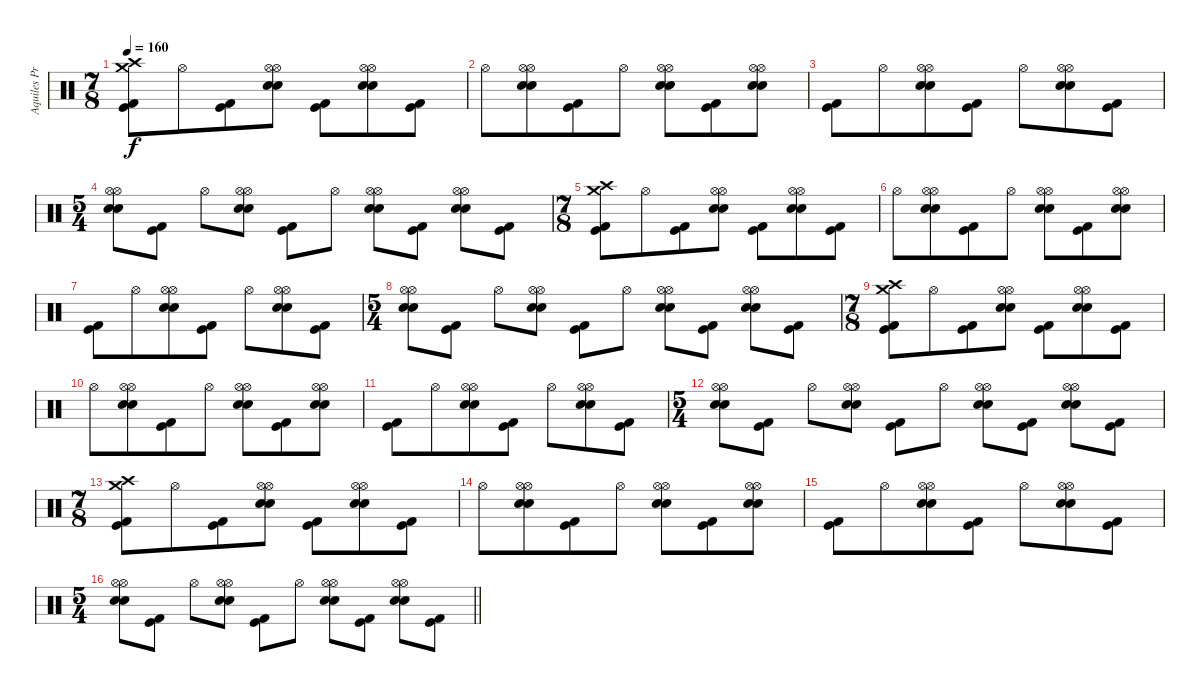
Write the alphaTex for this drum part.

\track ("Aquiles Priester" "Aquiles Pr") {instrument percussion}
\staff {score}
\articulation defaults
\ts (7 8)
\tempo 160
\clef neutral
\ks c
("Crash medium (hit)" "Crash high (hit)" "Kick (hit) 2" "Kick (hit)").8{dy f} "Hi-Hat (open)".8 ("Kick (hit) 2" "Kick (hit)").8 ("Hi-Hat (open)" "Hi-Hat (open)" "Electric Snare (hit)" "Electric Snare (hit)").8 ("Kick (hit)" "Kick (hit) 2").8 ("Hi-Hat (open)" "Hi-Hat (open)" "Electric Snare (hit)" "Electric Snare (hit)").8 ("Kick (hit) 2" "Kick (hit)").8 |
"Hi-Hat (open)".8 ("Hi-Hat (open)" "Hi-Hat (open)" "Electric Snare (hit)" "Electric Snare (hit)").8 ("Kick (hit)" "Kick (hit) 2").8 "Hi-Hat (open)".8 ("Hi-Hat (open)" "Hi-Hat (open)" "Electric Snare (hit)" "Electric Snare (hit)").8 ("Kick (hit) 2" "Kick (hit)").8 ("Hi-Hat (open)" "Hi-Hat (open)" "Electric Snare (hit)" "Electric Snare (hit)").8 |
("Kick (hit)" "Kick (hit) 2").8 "Hi-Hat (open)".8 ("Hi-Hat (open)" "Hi-Hat (open)" "Electric Snare (hit)" "Electric Snare (hit)").8 ("Kick (hit)" "Kick (hit) 2").8 "Hi-Hat (open)".8 ("Hi-Hat (open)" "Hi-Hat (open)" "Electric Snare (hit)" "Electric Snare (hit)").8 ("Kick (hit)" "Kick (hit) 2").8 |
\ts (5 4)
("Hi-Hat (open)" "Hi-Hat (open)" "Electric Snare (hit)" "Electric Snare (hit)").8 ("Kick (hit)" "Kick (hit) 2").8 "Hi-Hat (open)".8 ("Hi-Hat (open)" "Hi-Hat (open)" "Electric Snare (hit)" "Electric Snare (hit)").8 ("Kick (hit)" "Kick (hit) 2").8 "Hi-Hat (open)".8 ("Hi-Hat (open)" "Hi-Hat (open)" "Electric Snare (hit)" "Electric Snare (hit)").8 ("Kick (hit)" "Kick (hit) 2").8 ("Hi-Hat (open)" "Hi-Hat (open)" "Electric Snare (hit)" "Electric Snare (hit)").8 ("Kick (hit)" "Kick (hit) 2").8 |
\ts (7 8)
("Crash medium (hit)" "Crash high (hit)" "Kick (hit) 2" "Kick (hit)").8 "Hi-Hat (open)".8 ("Kick (hit) 2" "Kick (hit)").8 ("Hi-Hat (open)" "Hi-Hat (open)" "Electric Snare (hit)" "Electric Snare (hit)").8 ("Kick (hit)" "Kick (hit) 2").8 ("Hi-Hat (open)" "Hi-Hat (open)" "Electric Snare (hit)" "Electric Snare (hit)").8 ("Kick (hit) 2" "Kick (hit)").8 |
"Hi-Hat (open)".8 ("Hi-Hat (open)" "Hi-Hat (open)" "Electric Snare (hit)" "Electric Snare (hit)").8 ("Kick (hit)" "Kick (hit) 2").8 "Hi-Hat (open)".8 ("Hi-Hat (open)" "Hi-Hat (open)" "Electric Snare (hit)" "Electric Snare (hit)").8 ("Kick (hit) 2" "Kick (hit)").8 ("Hi-Hat (open)" "Hi-Hat (open)" "Electric Snare (hit)" "Electric Snare (hit)").8 |
("Kick (hit)" "Kick (hit) 2").8 "Hi-Hat (open)".8 ("Hi-Hat (open)" "Hi-Hat (open)" "Electric Snare (hit)" "Electric Snare (hit)").8 ("Kick (hit)" "Kick (hit) 2").8 "Hi-Hat (open)".8 ("Hi-Hat (open)" "Hi-Hat (open)" "Electric Snare (hit)" "Electric Snare (hit)").8 ("Kick (hit)" "Kick (hit) 2").8 |
\ts (5 4)
("Hi-Hat (open)" "Hi-Hat (open)" "Electric Snare (hit)" "Electric Snare (hit)").8 ("Kick (hit)" "Kick (hit) 2").8 "Hi-Hat (open)".8 ("Hi-Hat (open)" "Hi-Hat (open)" "Electric Snare (hit)" "Electric Snare (hit)").8 ("Kick (hit)" "Kick (hit) 2").8 "Hi-Hat (open)".8 ("Hi-Hat (open)" "Hi-Hat (open)" "Electric Snare (hit)" "Electric Snare (hit)").8 ("Kick (hit)" "Kick (hit) 2").8 ("Hi-Hat (open)" "Hi-Hat (open)" "Electric Snare (hit)" "Electric Snare (hit)").8 ("Kick (hit)" "Kick (hit) 2").8 |
\ts (7 8)
("Crash medium (hit)" "Crash high (hit)" "Kick (hit) 2" "Kick (hit)").8 "Hi-Hat (open)".8 ("Kick (hit) 2" "Kick (hit)").8 ("Hi-Hat (open)" "Hi-Hat (open)" "Electric Snare (hit)" "Electric Snare (hit)").8 ("Kick (hit)" "Kick (hit) 2").8 ("Hi-Hat (open)" "Hi-Hat (open)" "Electric Snare (hit)" "Electric Snare (hit)").8 ("Kick (hit) 2" "Kick (hit)").8 |
"Hi-Hat (open)".8 ("Hi-Hat (open)" "Hi-Hat (open)" "Electric Snare (hit)" "Electric Snare (hit)").8 ("Kick (hit)" "Kick (hit) 2").8 "Hi-Hat (open)".8 ("Hi-Hat (open)" "Hi-Hat (open)" "Electric Snare (hit)" "Electric Snare (hit)").8 ("Kick (hit) 2" "Kick (hit)").8 ("Hi-Hat (open)" "Hi-Hat (open)" "Electric Snare (hit)" "Electric Snare (hit)").8 |
("Kick (hit)" "Kick (hit) 2").8 "Hi-Hat (open)".8 ("Hi-Hat (open)" "Hi-Hat (open)" "Electric Snare (hit)" "Electric Snare (hit)").8 ("Kick (hit)" "Kick (hit) 2").8 "Hi-Hat (open)".8 ("Hi-Hat (open)" "Hi-Hat (open)" "Electric Snare (hit)" "Electric Snare (hit)").8 ("Kick (hit)" "Kick (hit) 2").8 |
\ts (5 4)
("Hi-Hat (open)" "Hi-Hat (open)" "Electric Snare (hit)" "Electric Snare (hit)").8 ("Kick (hit)" "Kick (hit) 2").8 "Hi-Hat (open)".8 ("Hi-Hat (open)" "Hi-Hat (open)" "Electric Snare (hit)" "Electric Snare (hit)").8 ("Kick (hit)" "Kick (hit) 2").8 "Hi-Hat (open)".8 ("Hi-Hat (open)" "Hi-Hat (open)" "Electric Snare (hit)" "Electric Snare (hit)").8 ("Kick (hit)" "Kick (hit) 2").8 ("Hi-Hat (open)" "Hi-Hat (open)" "Electric Snare (hit)" "Electric Snare (hit)").8 ("Kick (hit)" "Kick (hit) 2").8 |
\ts (7 8)
("Crash medium (hit)" "Crash high (hit)" "Kick (hit) 2" "Kick (hit)").8 "Hi-Hat (open)".8 ("Kick (hit) 2" "Kick (hit)").8 ("Hi-Hat (open)" "Hi-Hat (open)" "Electric Snare (hit)" "Electric Snare (hit)").8 ("Kick (hit)" "Kick (hit) 2").8 ("Hi-Hat (open)" "Hi-Hat (open)" "Electric Snare (hit)" "Electric Snare (hit)").8 ("Kick (hit) 2" "Kick (hit)").8 |
"Hi-Hat (open)".8 ("Hi-Hat (open)" "Hi-Hat (open)" "Electric Snare (hit)" "Electric Snare (hit)").8 ("Kick (hit)" "Kick (hit) 2").8 "Hi-Hat (open)".8 ("Hi-Hat (open)" "Hi-Hat (open)" "Electric Snare (hit)" "Electric Snare (hit)").8 ("Kick (hit) 2" "Kick (hit)").8 ("Hi-Hat (open)" "Hi-Hat (open)" "Electric Snare (hit)" "Electric Snare (hit)").8 |
("Kick (hit)" "Kick (hit) 2").8 "Hi-Hat (open)".8 ("Hi-Hat (open)" "Hi-Hat (open)" "Electric Snare (hit)" "Electric Snare (hit)").8 ("Kick (hit)" "Kick (hit) 2").8 "Hi-Hat (open)".8 ("Hi-Hat (open)" "Hi-Hat (open)" "Electric Snare (hit)" "Electric Snare (hit)").8 ("Kick (hit)" "Kick (hit) 2").8 |
\ts (5 4)
\barLineRight lightlight
("Hi-Hat (open)" "Hi-Hat (open)" "Electric Snare (hit)" "Electric Snare (hit)").8 ("Kick (hit)" "Kick (hit) 2").8 "Hi-Hat (open)".8 ("Hi-Hat (open)" "Hi-Hat (open)" "Electric Snare (hit)" "Electric Snare (hit)").8 ("Kick (hit)" "Kick (hit) 2").8 "Hi-Hat (open)".8 ("Hi-Hat (open)" "Hi-Hat (open)" "Electric Snare (hit)" "Electric Snare (hit)").8 ("Kick (hit)" "Kick (hit) 2").8 ("Hi-Hat (open)" "Hi-Hat (open)" "Electric Snare (hit)" "Electric Snare (hit)").8 ("Kick (hit)" "Kick (hit) 2").8
